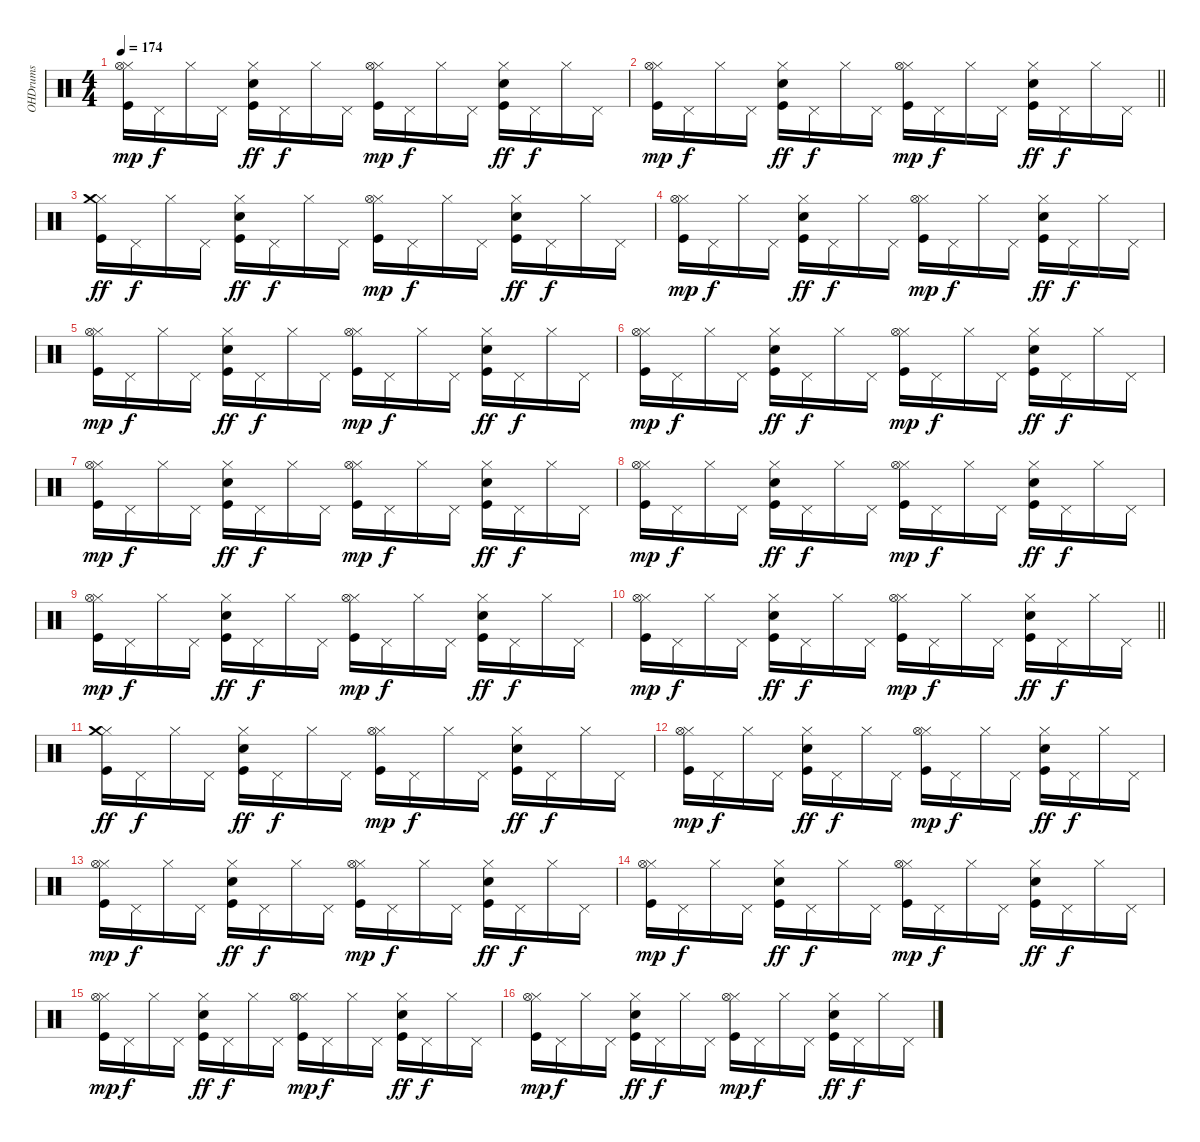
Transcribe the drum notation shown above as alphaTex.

\track ("OHDrums" "OHDrums") {instrument percussion}
\staff {score}
\articulation defaults
\ts (4 4)
\tempo 174
\clef neutral
\ks c
("Kick (hit)" "Hi-Hat (closed)" "Hi-Hat (open)").16{dy mp} "Pedal Hi-Hat (hit)".16{dy f} "Hi-Hat (closed)".16 "Pedal Hi-Hat (hit)".16 ("Kick (hit)" "Electric Snare (hit)" "Hi-Hat (closed)").16{dy ff} "Pedal Hi-Hat (hit)".16{dy f} "Hi-Hat (closed)".16 "Pedal Hi-Hat (hit)".16 ("Kick (hit)" "Hi-Hat (closed)" "Hi-Hat (open)").16{dy mp} "Pedal Hi-Hat (hit)".16{dy f} "Hi-Hat (closed)".16 "Pedal Hi-Hat (hit)".16 ("Kick (hit)" "Electric Snare (hit)" "Hi-Hat (closed)").16{dy ff} "Pedal Hi-Hat (hit)".16{dy f} "Hi-Hat (closed)".16 "Pedal Hi-Hat (hit)".16 |
\barLineRight lightlight
("Kick (hit)" "Hi-Hat (closed)" "Hi-Hat (open)").16{dy mp} "Pedal Hi-Hat (hit)".16{dy f} "Hi-Hat (closed)".16 "Pedal Hi-Hat (hit)".16 ("Kick (hit)" "Electric Snare (hit)" "Hi-Hat (closed)").16{dy ff} "Pedal Hi-Hat (hit)".16{dy f} "Hi-Hat (closed)".16 "Pedal Hi-Hat (hit)".16 ("Kick (hit)" "Hi-Hat (closed)" "Hi-Hat (open)").16{dy mp} "Pedal Hi-Hat (hit)".16{dy f} "Hi-Hat (closed)".16 "Pedal Hi-Hat (hit)".16 ("Kick (hit)" "Electric Snare (hit)" "Hi-Hat (closed)").16{dy ff} "Pedal Hi-Hat (hit)".16{dy f} "Hi-Hat (closed)".16 "Pedal Hi-Hat (hit)".16 |
("Kick (hit)" "Hi-Hat (closed)" "Crash medium (hit)").16{dy ff} "Pedal Hi-Hat (hit)".16{dy f} "Hi-Hat (closed)".16 "Pedal Hi-Hat (hit)".16 ("Kick (hit)" "Electric Snare (hit)" "Hi-Hat (closed)").16{dy ff} "Pedal Hi-Hat (hit)".16{dy f} "Hi-Hat (closed)".16 "Pedal Hi-Hat (hit)".16 ("Kick (hit)" "Hi-Hat (closed)" "Hi-Hat (open)").16{dy mp} "Pedal Hi-Hat (hit)".16{dy f} "Hi-Hat (closed)".16 "Pedal Hi-Hat (hit)".16 ("Kick (hit)" "Electric Snare (hit)" "Hi-Hat (closed)").16{dy ff} "Pedal Hi-Hat (hit)".16{dy f} "Hi-Hat (closed)".16 "Pedal Hi-Hat (hit)".16 |
("Kick (hit)" "Hi-Hat (closed)" "Hi-Hat (open)").16{dy mp} "Pedal Hi-Hat (hit)".16{dy f} "Hi-Hat (closed)".16 "Pedal Hi-Hat (hit)".16 ("Kick (hit)" "Electric Snare (hit)" "Hi-Hat (closed)").16{dy ff} "Pedal Hi-Hat (hit)".16{dy f} "Hi-Hat (closed)".16 "Pedal Hi-Hat (hit)".16 ("Kick (hit)" "Hi-Hat (closed)" "Hi-Hat (open)").16{dy mp} "Pedal Hi-Hat (hit)".16{dy f} "Hi-Hat (closed)".16 "Pedal Hi-Hat (hit)".16 ("Kick (hit)" "Electric Snare (hit)" "Hi-Hat (closed)").16{dy ff} "Pedal Hi-Hat (hit)".16{dy f} "Hi-Hat (closed)".16 "Pedal Hi-Hat (hit)".16 |
("Kick (hit)" "Hi-Hat (closed)" "Hi-Hat (open)").16{dy mp} "Pedal Hi-Hat (hit)".16{dy f} "Hi-Hat (closed)".16 "Pedal Hi-Hat (hit)".16 ("Kick (hit)" "Electric Snare (hit)" "Hi-Hat (closed)").16{dy ff} "Pedal Hi-Hat (hit)".16{dy f} "Hi-Hat (closed)".16 "Pedal Hi-Hat (hit)".16 ("Kick (hit)" "Hi-Hat (closed)" "Hi-Hat (open)").16{dy mp} "Pedal Hi-Hat (hit)".16{dy f} "Hi-Hat (closed)".16 "Pedal Hi-Hat (hit)".16 ("Kick (hit)" "Electric Snare (hit)" "Hi-Hat (closed)").16{dy ff} "Pedal Hi-Hat (hit)".16{dy f} "Hi-Hat (closed)".16 "Pedal Hi-Hat (hit)".16 |
("Kick (hit)" "Hi-Hat (closed)" "Hi-Hat (open)").16{dy mp} "Pedal Hi-Hat (hit)".16{dy f} "Hi-Hat (closed)".16 "Pedal Hi-Hat (hit)".16 ("Kick (hit)" "Electric Snare (hit)" "Hi-Hat (closed)").16{dy ff} "Pedal Hi-Hat (hit)".16{dy f} "Hi-Hat (closed)".16 "Pedal Hi-Hat (hit)".16 ("Kick (hit)" "Hi-Hat (closed)" "Hi-Hat (open)").16{dy mp} "Pedal Hi-Hat (hit)".16{dy f} "Hi-Hat (closed)".16 "Pedal Hi-Hat (hit)".16 ("Kick (hit)" "Electric Snare (hit)" "Hi-Hat (closed)").16{dy ff} "Pedal Hi-Hat (hit)".16{dy f} "Hi-Hat (closed)".16 "Pedal Hi-Hat (hit)".16 |
("Kick (hit)" "Hi-Hat (closed)" "Hi-Hat (open)").16{dy mp} "Pedal Hi-Hat (hit)".16{dy f} "Hi-Hat (closed)".16 "Pedal Hi-Hat (hit)".16 ("Kick (hit)" "Electric Snare (hit)" "Hi-Hat (closed)").16{dy ff} "Pedal Hi-Hat (hit)".16{dy f} "Hi-Hat (closed)".16 "Pedal Hi-Hat (hit)".16 ("Kick (hit)" "Hi-Hat (closed)" "Hi-Hat (open)").16{dy mp} "Pedal Hi-Hat (hit)".16{dy f} "Hi-Hat (closed)".16 "Pedal Hi-Hat (hit)".16 ("Kick (hit)" "Electric Snare (hit)" "Hi-Hat (closed)").16{dy ff} "Pedal Hi-Hat (hit)".16{dy f} "Hi-Hat (closed)".16 "Pedal Hi-Hat (hit)".16 |
("Kick (hit)" "Hi-Hat (closed)" "Hi-Hat (open)").16{dy mp} "Pedal Hi-Hat (hit)".16{dy f} "Hi-Hat (closed)".16 "Pedal Hi-Hat (hit)".16 ("Kick (hit)" "Electric Snare (hit)" "Hi-Hat (closed)").16{dy ff} "Pedal Hi-Hat (hit)".16{dy f} "Hi-Hat (closed)".16 "Pedal Hi-Hat (hit)".16 ("Kick (hit)" "Hi-Hat (closed)" "Hi-Hat (open)").16{dy mp} "Pedal Hi-Hat (hit)".16{dy f} "Hi-Hat (closed)".16 "Pedal Hi-Hat (hit)".16 ("Kick (hit)" "Electric Snare (hit)" "Hi-Hat (closed)").16{dy ff} "Pedal Hi-Hat (hit)".16{dy f} "Hi-Hat (closed)".16 "Pedal Hi-Hat (hit)".16 |
("Kick (hit)" "Hi-Hat (closed)" "Hi-Hat (open)").16{dy mp} "Pedal Hi-Hat (hit)".16{dy f} "Hi-Hat (closed)".16 "Pedal Hi-Hat (hit)".16 ("Kick (hit)" "Electric Snare (hit)" "Hi-Hat (closed)").16{dy ff} "Pedal Hi-Hat (hit)".16{dy f} "Hi-Hat (closed)".16 "Pedal Hi-Hat (hit)".16 ("Kick (hit)" "Hi-Hat (closed)" "Hi-Hat (open)").16{dy mp} "Pedal Hi-Hat (hit)".16{dy f} "Hi-Hat (closed)".16 "Pedal Hi-Hat (hit)".16 ("Kick (hit)" "Electric Snare (hit)" "Hi-Hat (closed)").16{dy ff} "Pedal Hi-Hat (hit)".16{dy f} "Hi-Hat (closed)".16 "Pedal Hi-Hat (hit)".16 |
\barLineRight lightlight
("Kick (hit)" "Hi-Hat (closed)" "Hi-Hat (open)").16{dy mp} "Pedal Hi-Hat (hit)".16{dy f} "Hi-Hat (closed)".16 "Pedal Hi-Hat (hit)".16 ("Kick (hit)" "Electric Snare (hit)" "Hi-Hat (closed)").16{dy ff} "Pedal Hi-Hat (hit)".16{dy f} "Hi-Hat (closed)".16 "Pedal Hi-Hat (hit)".16 ("Kick (hit)" "Hi-Hat (closed)" "Hi-Hat (open)").16{dy mp} "Pedal Hi-Hat (hit)".16{dy f} "Hi-Hat (closed)".16 "Pedal Hi-Hat (hit)".16 ("Kick (hit)" "Electric Snare (hit)" "Hi-Hat (closed)").16{dy ff} "Pedal Hi-Hat (hit)".16{dy f} "Hi-Hat (closed)".16 "Pedal Hi-Hat (hit)".16 |
("Kick (hit)" "Hi-Hat (closed)" "Crash medium (hit)").16{dy ff} "Pedal Hi-Hat (hit)".16{dy f} "Hi-Hat (closed)".16 "Pedal Hi-Hat (hit)".16 ("Kick (hit)" "Electric Snare (hit)" "Hi-Hat (closed)").16{dy ff} "Pedal Hi-Hat (hit)".16{dy f} "Hi-Hat (closed)".16 "Pedal Hi-Hat (hit)".16 ("Kick (hit)" "Hi-Hat (closed)" "Hi-Hat (open)").16{dy mp} "Pedal Hi-Hat (hit)".16{dy f} "Hi-Hat (closed)".16 "Pedal Hi-Hat (hit)".16 ("Kick (hit)" "Electric Snare (hit)" "Hi-Hat (closed)").16{dy ff} "Pedal Hi-Hat (hit)".16{dy f} "Hi-Hat (closed)".16 "Pedal Hi-Hat (hit)".16 |
("Kick (hit)" "Hi-Hat (closed)" "Hi-Hat (open)").16{dy mp} "Pedal Hi-Hat (hit)".16{dy f} "Hi-Hat (closed)".16 "Pedal Hi-Hat (hit)".16 ("Kick (hit)" "Electric Snare (hit)" "Hi-Hat (closed)").16{dy ff} "Pedal Hi-Hat (hit)".16{dy f} "Hi-Hat (closed)".16 "Pedal Hi-Hat (hit)".16 ("Kick (hit)" "Hi-Hat (closed)" "Hi-Hat (open)").16{dy mp} "Pedal Hi-Hat (hit)".16{dy f} "Hi-Hat (closed)".16 "Pedal Hi-Hat (hit)".16 ("Kick (hit)" "Electric Snare (hit)" "Hi-Hat (closed)").16{dy ff} "Pedal Hi-Hat (hit)".16{dy f} "Hi-Hat (closed)".16 "Pedal Hi-Hat (hit)".16 |
("Kick (hit)" "Hi-Hat (closed)" "Hi-Hat (open)").16{dy mp} "Pedal Hi-Hat (hit)".16{dy f} "Hi-Hat (closed)".16 "Pedal Hi-Hat (hit)".16 ("Kick (hit)" "Electric Snare (hit)" "Hi-Hat (closed)").16{dy ff} "Pedal Hi-Hat (hit)".16{dy f} "Hi-Hat (closed)".16 "Pedal Hi-Hat (hit)".16 ("Kick (hit)" "Hi-Hat (closed)" "Hi-Hat (open)").16{dy mp} "Pedal Hi-Hat (hit)".16{dy f} "Hi-Hat (closed)".16 "Pedal Hi-Hat (hit)".16 ("Kick (hit)" "Electric Snare (hit)" "Hi-Hat (closed)").16{dy ff} "Pedal Hi-Hat (hit)".16{dy f} "Hi-Hat (closed)".16 "Pedal Hi-Hat (hit)".16 |
("Kick (hit)" "Hi-Hat (closed)" "Hi-Hat (open)").16{dy mp} "Pedal Hi-Hat (hit)".16{dy f} "Hi-Hat (closed)".16 "Pedal Hi-Hat (hit)".16 ("Kick (hit)" "Electric Snare (hit)" "Hi-Hat (closed)").16{dy ff} "Pedal Hi-Hat (hit)".16{dy f} "Hi-Hat (closed)".16 "Pedal Hi-Hat (hit)".16 ("Kick (hit)" "Hi-Hat (closed)" "Hi-Hat (open)").16{dy mp} "Pedal Hi-Hat (hit)".16{dy f} "Hi-Hat (closed)".16 "Pedal Hi-Hat (hit)".16 ("Kick (hit)" "Electric Snare (hit)" "Hi-Hat (closed)").16{dy ff} "Pedal Hi-Hat (hit)".16{dy f} "Hi-Hat (closed)".16 "Pedal Hi-Hat (hit)".16 |
("Kick (hit)" "Hi-Hat (closed)" "Hi-Hat (open)").16{dy mp} "Pedal Hi-Hat (hit)".16{dy f} "Hi-Hat (closed)".16 "Pedal Hi-Hat (hit)".16 ("Kick (hit)" "Electric Snare (hit)" "Hi-Hat (closed)").16{dy ff} "Pedal Hi-Hat (hit)".16{dy f} "Hi-Hat (closed)".16 "Pedal Hi-Hat (hit)".16 ("Kick (hit)" "Hi-Hat (closed)" "Hi-Hat (open)").16{dy mp} "Pedal Hi-Hat (hit)".16{dy f} "Hi-Hat (closed)".16 "Pedal Hi-Hat (hit)".16 ("Kick (hit)" "Electric Snare (hit)" "Hi-Hat (closed)").16{dy ff} "Pedal Hi-Hat (hit)".16{dy f} "Hi-Hat (closed)".16 "Pedal Hi-Hat (hit)".16 |
("Kick (hit)" "Hi-Hat (closed)" "Hi-Hat (open)").16{dy mp} "Pedal Hi-Hat (hit)".16{dy f} "Hi-Hat (closed)".16 "Pedal Hi-Hat (hit)".16 ("Kick (hit)" "Electric Snare (hit)" "Hi-Hat (closed)").16{dy ff} "Pedal Hi-Hat (hit)".16{dy f} "Hi-Hat (closed)".16 "Pedal Hi-Hat (hit)".16 ("Kick (hit)" "Hi-Hat (closed)" "Hi-Hat (open)").16{dy mp} "Pedal Hi-Hat (hit)".16{dy f} "Hi-Hat (closed)".16 "Pedal Hi-Hat (hit)".16 ("Kick (hit)" "Electric Snare (hit)" "Hi-Hat (closed)").16{dy ff} "Pedal Hi-Hat (hit)".16{dy f} "Hi-Hat (closed)".16 "Pedal Hi-Hat (hit)".16
